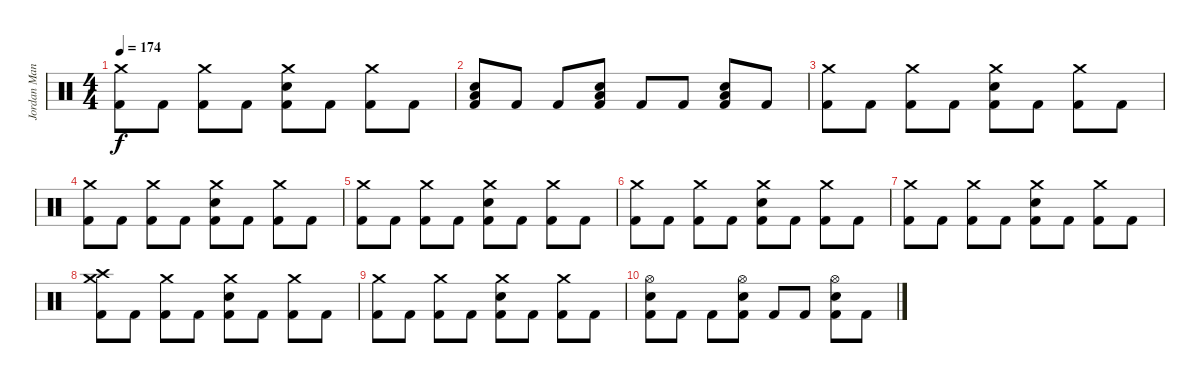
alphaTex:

\track ("Jordan Manchino (Drums)" "Jordan Man") {instrument percussion}
\staff {score}
\articulation defaults
\ts (4 4)
\tempo 174
\clef neutral
\ks c
("Crash medium (hit)" "Kick (hit) 2").8{dy f} "Kick (hit) 2".8 ("Crash medium (hit)" "Kick (hit) 2").8 "Kick (hit) 2".8 ("Crash medium (hit)" "Snare (hit) 2" "Kick (hit) 2").8 "Kick (hit) 2".8 ("Crash medium (hit)" "Kick (hit) 2").8 "Kick (hit) 2".8 |
("Low Floor Tom (hit)" "Snare (hit) 2" "Kick (hit) 2").8 "Kick (hit) 2".8 "Kick (hit) 2".8 ("Low Floor Tom (hit)" "Snare (hit) 2" "Kick (hit) 2").8 "Kick (hit) 2".8 "Kick (hit) 2".8 ("Low Floor Tom (hit)" "Snare (hit) 2" "Kick (hit) 2").8 "Kick (hit) 2".8 |
("Crash medium (hit)" "Kick (hit) 2").8 "Kick (hit) 2".8 ("Crash medium (hit)" "Kick (hit) 2").8 "Kick (hit) 2".8 ("Crash medium (hit)" "Snare (hit) 2" "Kick (hit) 2").8 "Kick (hit) 2".8 ("Crash medium (hit)" "Kick (hit) 2").8 "Kick (hit) 2".8 |
("Crash medium (hit)" "Kick (hit) 2").8 "Kick (hit) 2".8 ("Crash medium (hit)" "Kick (hit) 2").8 "Kick (hit) 2".8 ("Crash medium (hit)" "Snare (hit) 2" "Kick (hit) 2").8 "Kick (hit) 2".8 ("Crash medium (hit)" "Kick (hit) 2").8 "Kick (hit) 2".8 |
("Crash medium (hit)" "Kick (hit) 2").8 "Kick (hit) 2".8 ("Crash medium (hit)" "Kick (hit) 2").8 "Kick (hit) 2".8 ("Crash medium (hit)" "Snare (hit) 2" "Kick (hit) 2").8 "Kick (hit) 2".8 ("Crash medium (hit)" "Kick (hit) 2").8 "Kick (hit) 2".8 |
("Crash medium (hit)" "Kick (hit) 2").8 "Kick (hit) 2".8 ("Crash medium (hit)" "Kick (hit) 2").8 "Kick (hit) 2".8 ("Crash medium (hit)" "Snare (hit) 2" "Kick (hit) 2").8 "Kick (hit) 2".8 ("Crash medium (hit)" "Kick (hit) 2").8 "Kick (hit) 2".8 |
("Crash medium (hit)" "Kick (hit) 2").8 "Kick (hit) 2".8 ("Crash medium (hit)" "Kick (hit) 2").8 "Kick (hit) 2".8 ("Crash medium (hit)" "Snare (hit) 2" "Kick (hit) 2").8 "Kick (hit) 2".8 ("Crash medium (hit)" "Kick (hit) 2").8 "Kick (hit) 2".8 |
("Crash high (hit)" "Crash medium (hit)" "Kick (hit) 2").8 "Kick (hit) 2".8 ("Crash medium (hit)" "Kick (hit) 2").8 "Kick (hit) 2".8 ("Crash medium (hit)" "Snare (hit) 2" "Kick (hit) 2").8 "Kick (hit) 2".8 ("Crash medium (hit)" "Kick (hit) 2").8 "Kick (hit) 2".8 |
("Crash medium (hit)" "Kick (hit) 2").8 "Kick (hit) 2".8 ("Crash medium (hit)" "Kick (hit) 2").8 "Kick (hit) 2".8 ("Crash medium (hit)" "Snare (hit) 2" "Kick (hit) 2").8 "Kick (hit) 2".8 ("Crash medium (hit)" "Kick (hit) 2").8 "Kick (hit) 2".8 |
("Hi-Hat (open)" "Snare (hit) 2" "Kick (hit) 2").8 "Kick (hit) 2".8 "Kick (hit) 2".8 ("Hi-Hat (open)" "Snare (hit) 2" "Kick (hit) 2").8 "Kick (hit) 2".8 "Kick (hit) 2".8 ("Hi-Hat (open)" "Snare (hit) 2" "Kick (hit) 2").8 "Kick (hit) 2".8
